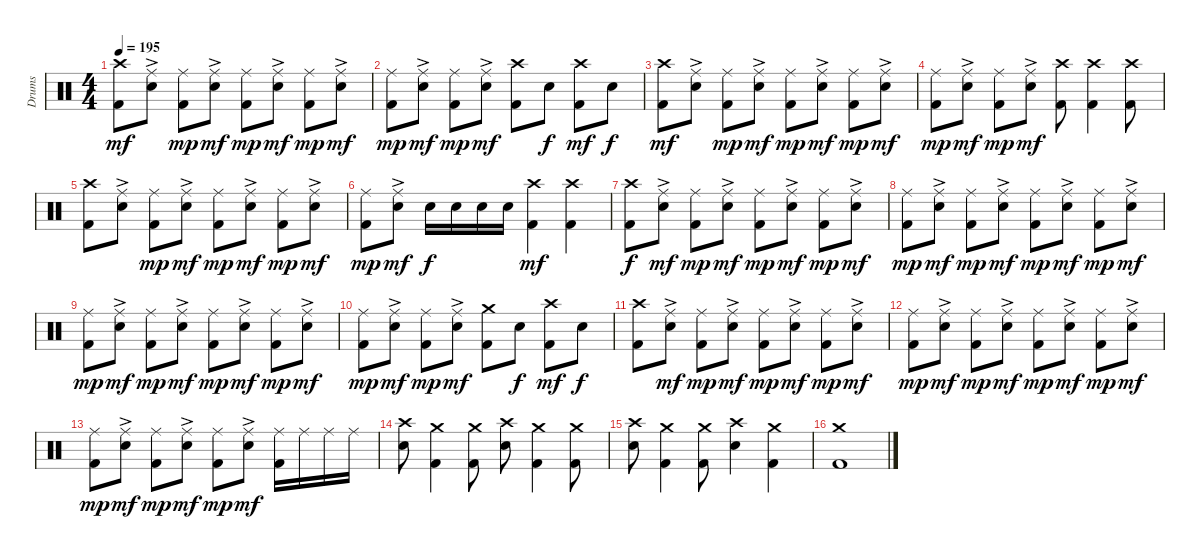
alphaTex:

\track ("Drums" "Drums") {instrument percussion}
\staff {score}
\articulation defaults
\ts (4 4)
\tempo 195
\clef neutral
\ks c
("Crash high (hit)" "Kick (hit) 2").8{dy mf} ("Ride (middle)"{ac} "Electric Snare (hit)").8 ("Ride (middle)" "Kick (hit) 2").8{dy mp} ("Ride (middle)"{ac} "Electric Snare (hit)").8{dy mf} ("Ride (middle)" "Kick (hit) 2").8{dy mp} ("Ride (middle)"{ac} "Electric Snare (hit)").8{dy mf} ("Ride (middle)" "Kick (hit) 2").8{dy mp} ("Ride (middle)"{ac} "Electric Snare (hit)").8{dy mf} |
("Ride (middle)" "Kick (hit) 2").8{dy mp} ("Ride (middle)"{ac} "Electric Snare (hit)").8{dy mf} ("Ride (middle)" "Kick (hit) 2").8{dy mp} ("Ride (middle)"{ac} "Electric Snare (hit)").8{dy mf} ("Crash high (hit)" "Kick (hit) 2").8 "Electric Snare (hit)".8{dy f} ("Crash high (hit)" "Kick (hit) 2").8{dy mf} "Electric Snare (hit)".8{dy f} |
("Crash high (hit)" "Kick (hit) 2").8{dy mf} ("Ride (middle)"{ac} "Electric Snare (hit)").8 ("Ride (middle)" "Kick (hit) 2").8{dy mp} ("Ride (middle)"{ac} "Electric Snare (hit)").8{dy mf} ("Ride (middle)" "Kick (hit) 2").8{dy mp} ("Ride (middle)"{ac} "Electric Snare (hit)").8{dy mf} ("Ride (middle)" "Kick (hit) 2").8{dy mp} ("Ride (middle)"{ac} "Electric Snare (hit)").8{dy mf} |
("Ride (middle)" "Kick (hit) 2").8{dy mp} ("Ride (middle)"{ac} "Electric Snare (hit)").8{dy mf} ("Ride (middle)" "Kick (hit) 2").8{dy mp} ("Ride (middle)"{ac} "Electric Snare (hit)").8{dy mf} ("Crash high (hit)" "Kick (hit) 2").8 ("Crash high (hit)" "Kick (hit) 2").4 ("Crash high (hit)" "Kick (hit) 2").8 |
("Crash high (hit)" "Kick (hit) 2").8 ("Ride (middle)"{ac} "Electric Snare (hit)").8 ("Ride (middle)" "Kick (hit) 2").8{dy mp} ("Ride (middle)"{ac} "Electric Snare (hit)").8{dy mf} ("Ride (middle)" "Kick (hit) 2").8{dy mp} ("Ride (middle)"{ac} "Electric Snare (hit)").8{dy mf} ("Ride (middle)" "Kick (hit) 2").8{dy mp} ("Ride (middle)"{ac} "Electric Snare (hit)").8{dy mf} |
("Ride (middle)" "Kick (hit) 2").8{dy mp} ("Ride (middle)"{ac} "Electric Snare (hit)").8{dy mf} "Electric Snare (hit)".16{dy f} "Electric Snare (hit)".16 "Electric Snare (hit)".16 "Electric Snare (hit)".16 ("Crash high (hit)" "Kick (hit) 2").4{dy mf} ("Crash high (hit)" "Kick (hit) 2").4 |
("Crash high (hit)" "Kick (hit) 2").8{dy f} ("Ride (middle)"{ac} "Electric Snare (hit)").8{dy mf} ("Ride (middle)" "Kick (hit) 2").8{dy mp} ("Ride (middle)"{ac} "Electric Snare (hit)").8{dy mf} ("Ride (middle)" "Kick (hit) 2").8{dy mp} ("Ride (middle)"{ac} "Electric Snare (hit)").8{dy mf} ("Ride (middle)" "Kick (hit) 2").8{dy mp} ("Ride (middle)"{ac} "Electric Snare (hit)").8{dy mf} |
("Ride (middle)" "Kick (hit) 2").8{dy mp} ("Ride (middle)"{ac} "Electric Snare (hit)").8{dy mf} ("Ride (middle)" "Kick (hit) 2").8{dy mp} ("Ride (middle)"{ac} "Electric Snare (hit)").8{dy mf} ("Ride (middle)" "Kick (hit) 2").8{dy mp} ("Ride (middle)"{ac} "Electric Snare (hit)").8{dy mf} ("Ride (middle)" "Kick (hit) 2").8{dy mp} ("Ride (middle)"{ac} "Electric Snare (hit)").8{dy mf} |
("Ride (middle)" "Kick (hit) 2").8{dy mp} ("Ride (middle)"{ac} "Electric Snare (hit)").8{dy mf} ("Ride (middle)" "Kick (hit) 2").8{dy mp} ("Ride (middle)"{ac} "Electric Snare (hit)").8{dy mf} ("Ride (middle)" "Kick (hit) 2").8{dy mp} ("Ride (middle)"{ac} "Electric Snare (hit)").8{dy mf} ("Ride (middle)" "Kick (hit) 2").8{dy mp} ("Ride (middle)"{ac} "Electric Snare (hit)").8{dy mf} |
("Ride (middle)" "Kick (hit) 2").8{dy mp} ("Ride (middle)"{ac} "Electric Snare (hit)").8{dy mf} ("Ride (middle)" "Kick (hit) 2").8{dy mp} ("Ride (middle)"{ac} "Electric Snare (hit)").8{dy mf} ("Crash medium (hit)" "Kick (hit) 2").8 "Electric Snare (hit)".8{dy f} ("Crash high (hit)" "Kick (hit) 2").8{dy mf} "Electric Snare (hit)".8{dy f} |
("Crash high (hit)" "Kick (hit) 2").8 ("Ride (middle)"{ac} "Electric Snare (hit)").8{dy mf} ("Ride (middle)" "Kick (hit) 2").8{dy mp} ("Ride (middle)"{ac} "Electric Snare (hit)").8{dy mf} ("Ride (middle)" "Kick (hit) 2").8{dy mp} ("Ride (middle)"{ac} "Electric Snare (hit)").8{dy mf} ("Ride (middle)" "Kick (hit) 2").8{dy mp} ("Ride (middle)"{ac} "Electric Snare (hit)").8{dy mf} |
("Ride (middle)" "Kick (hit) 2").8{dy mp} ("Ride (middle)"{ac} "Electric Snare (hit)").8{dy mf} ("Ride (middle)" "Kick (hit) 2").8{dy mp} ("Ride (middle)"{ac} "Electric Snare (hit)").8{dy mf} ("Ride (middle)" "Kick (hit) 2").8{dy mp} ("Ride (middle)"{ac} "Electric Snare (hit)").8{dy mf} ("Ride (middle)" "Kick (hit) 2").8{dy mp} ("Ride (middle)"{ac} "Electric Snare (hit)").8{dy mf} |
("Ride (middle)" "Kick (hit) 2").8{dy mp} ("Ride (middle)"{ac} "Electric Snare (hit)").8{dy mf} ("Ride (middle)" "Kick (hit) 2").8{dy mp} ("Ride (middle)"{ac} "Electric Snare (hit)").8{dy mf} ("Ride (middle)" "Kick (hit) 2").8{dy mp} ("Ride (middle)"{ac} "Electric Snare (hit)").8{dy mf} ("Ride (middle)" "Kick (hit) 2").16 "Ride (middle)".16 "Ride (middle)".16 "Ride (middle)".16 |
("Crash high (hit)" "Electric Snare (hit)").8 ("Crash medium (hit)" "Kick (hit) 2").4 ("Crash medium (hit)" "Kick (hit) 2").8 ("Crash high (hit)" "Electric Snare (hit)").8 ("Crash medium (hit)" "Kick (hit) 2").4 ("Crash medium (hit)" "Kick (hit) 2").8 |
("Crash high (hit)" "Electric Snare (hit)").8 ("Crash medium (hit)" "Kick (hit) 2").4 ("Crash medium (hit)" "Kick (hit) 2").8 ("Crash high (hit)" "Electric Snare (hit)").4 ("Crash medium (hit)" "Kick (hit) 2").4 |
("Crash medium (hit)" "Kick (hit) 2").1
